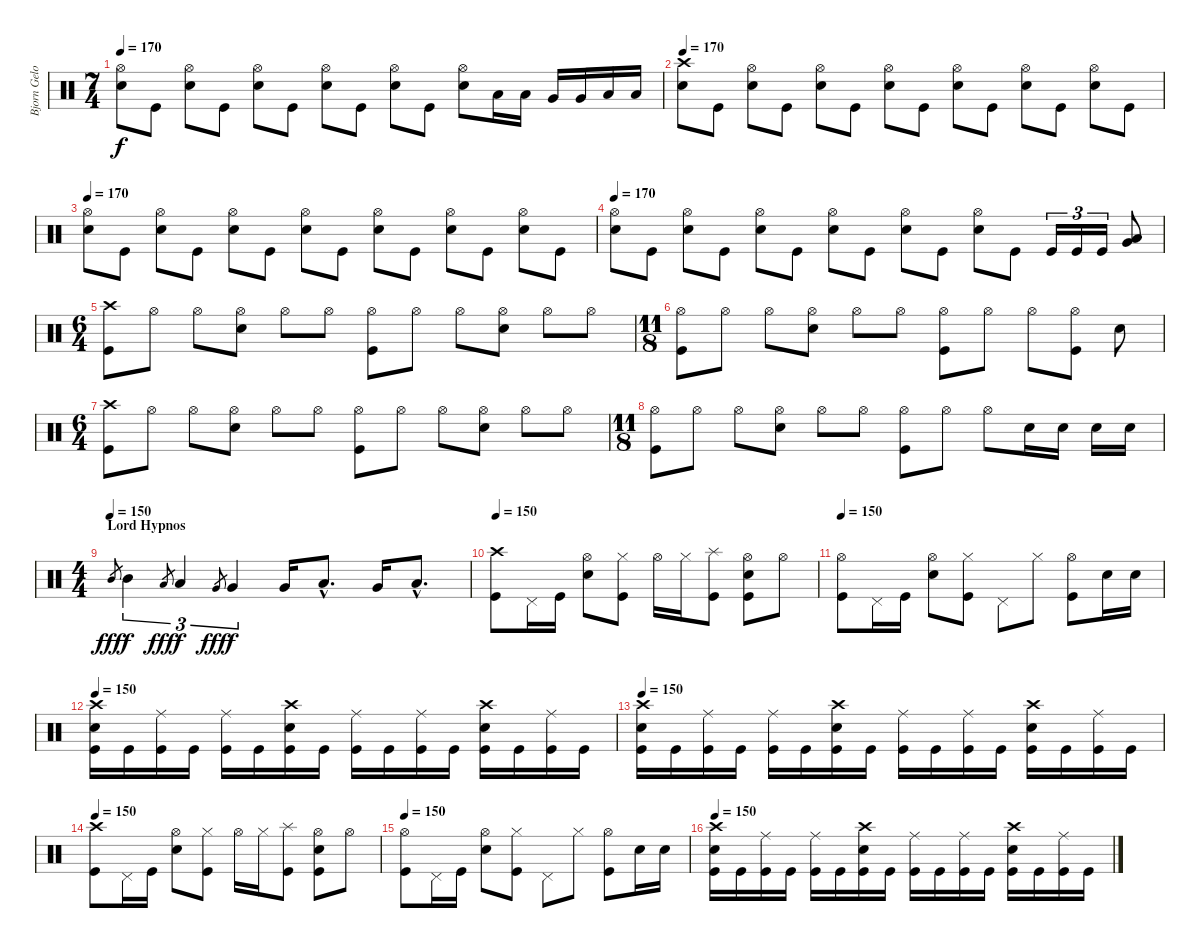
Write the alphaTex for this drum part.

\track ("Bjorn Gelotte-Drum" "Bjorn Gelo") {instrument percussion}
\staff {score}
\articulation defaults
\ts (7 4)
\tempo 170
\clef neutral
\ks c
("Hi-Hat (open)" "Electric Snare (hit)").8{dy f} "Kick (hit)".8 ("Hi-Hat (open)" "Electric Snare (hit)").8 "Kick (hit)".8 ("Hi-Hat (open)" "Electric Snare (hit)").8 "Kick (hit)".8 ("Hi-Hat (open)" "Electric Snare (hit)").8 "Kick (hit)".8 ("Hi-Hat (open)" "Electric Snare (hit)").8 "Kick (hit)".8 ("Hi-Hat (open)" "Electric Snare (hit)").8 "Low Tom (hit)".16 "Low Tom (hit)".16 "Very Low Tom (hit)".16 "Very Low Tom (hit)".16 "Low Floor Tom (hit)".16 "Low Floor Tom (hit)".16 |
\tempo 170
("Crash high (hit)" "Electric Snare (hit)").8 "Kick (hit)".8 ("Hi-Hat (open)" "Electric Snare (hit)").8 "Kick (hit)".8 ("Hi-Hat (open)" "Electric Snare (hit)").8 "Kick (hit)".8 ("Hi-Hat (open)" "Electric Snare (hit)").8 "Kick (hit)".8 ("Hi-Hat (open)" "Electric Snare (hit)").8 "Kick (hit)".8 ("Hi-Hat (open)" "Electric Snare (hit)").8 "Kick (hit)".8 ("Hi-Hat (open)" "Electric Snare (hit)").8 "Kick (hit)".8 |
\tempo 170
("Hi-Hat (open)" "Electric Snare (hit)").8 "Kick (hit)".8 ("Hi-Hat (open)" "Electric Snare (hit)").8 "Kick (hit)".8 ("Hi-Hat (open)" "Electric Snare (hit)").8 "Kick (hit)".8 ("Hi-Hat (open)" "Electric Snare (hit)").8 "Kick (hit)".8 ("Hi-Hat (open)" "Electric Snare (hit)").8 "Kick (hit)".8 ("Hi-Hat (open)" "Electric Snare (hit)").8 "Kick (hit)".8 ("Hi-Hat (open)" "Electric Snare (hit)").8 "Kick (hit)".8 |
\tempo 170
("Hi-Hat (open)" "Electric Snare (hit)").8 "Kick (hit)".8 ("Hi-Hat (open)" "Electric Snare (hit)").8 "Kick (hit)".8 ("Hi-Hat (open)" "Electric Snare (hit)").8 "Kick (hit)".8 ("Hi-Hat (open)" "Electric Snare (hit)").8 "Kick (hit)".8 ("Hi-Hat (open)" "Electric Snare (hit)").8 "Kick (hit)".8 ("Hi-Hat (open)" "Electric Snare (hit)").8 "Kick (hit)".8 "Kick (hit)".16{tu (3 2)} "Kick (hit)".16{tu (3 2)} "Kick (hit)".16{tu (3 2)} ("Very Low Tom (hit)" "Low Floor Tom (hit)").8 |
\ts (6 4)
("Crash high (hit)" "Kick (hit)").8 "Hi-Hat (open)".8 "Hi-Hat (open)".8 ("Hi-Hat (open)" "Electric Snare (hit)").8 "Hi-Hat (open)".8 "Hi-Hat (open)".8 ("Hi-Hat (open)" "Kick (hit)").8 "Hi-Hat (open)".8 "Hi-Hat (open)".8 ("Hi-Hat (open)" "Electric Snare (hit)").8 "Hi-Hat (open)".8 "Hi-Hat (open)".8 |
\ts (11 8)
("Hi-Hat (open)" "Kick (hit)").8 "Hi-Hat (open)".8 "Hi-Hat (open)".8 ("Hi-Hat (open)" "Electric Snare (hit)").8 "Hi-Hat (open)".8 "Hi-Hat (open)".8 ("Hi-Hat (open)" "Kick (hit)").8 "Hi-Hat (open)".8 "Hi-Hat (open)".8 ("Hi-Hat (open)" "Kick (hit)").8 "Electric Snare (hit)".8 |
\ts (6 4)
("Crash high (hit)" "Kick (hit)").8 "Hi-Hat (open)".8 "Hi-Hat (open)".8 ("Hi-Hat (open)" "Electric Snare (hit)").8 "Hi-Hat (open)".8 "Hi-Hat (open)".8 ("Hi-Hat (open)" "Kick (hit)").8 "Hi-Hat (open)".8 "Hi-Hat (open)".8 ("Hi-Hat (open)" "Electric Snare (hit)").8 "Hi-Hat (open)".8 "Hi-Hat (open)".8 |
\ts (11 8)
("Hi-Hat (open)" "Kick (hit)").8 "Hi-Hat (open)".8 "Hi-Hat (open)".8 ("Hi-Hat (open)" "Electric Snare (hit)").8 "Hi-Hat (open)".8 "Hi-Hat (open)".8 ("Hi-Hat (open)" "Kick (hit)").8 "Hi-Hat (open)".8 "Hi-Hat (open)".8 "Electric Snare (hit)".16 "Electric Snare (hit)".16 "Electric Snare (hit)".16 "Electric Snare (hit)".16 |
\ts (4 4)
\section ("" "Lord Hypnos")
\tempo (150)
"Mid Tom (hit)".8{gr dy fff} "Mid Tom (hit)".4{tu (3 2) dy f} "Low Tom (hit)".8{gr dy fff} "Low Tom (hit)".4{tu (3 2) dy f} "Very Low Tom (hit)".8{gr dy fff} "Very Low Tom (hit)".4{tu (3 2) dy f} "Very Low Tom (hit)".16 "Low Floor Tom (hit)"{hac}.8{d} "Very Low Tom (hit)".16 "Low Floor Tom (hit)"{hac}.8{d} |
\tempo 150
("Crash high (hit)" "Kick (hit)").8 "Pedal Hi-Hat (hit)".16 "Kick (hit)".16 ("Hi-Hat (open)" "Electric Snare (hit)").8 ("Hi-Hat (closed)" "Kick (hit)").8 "Hi-Hat (open)".16 "Hi-Hat (closed)".16 ("Splash (hit)" "Kick (hit)").8 ("Hi-Hat (open)" "Electric Snare (hit)" "Kick (hit)").8 "Hi-Hat (open)".8 |
\tempo 150
("Hi-Hat (open)" "Kick (hit)").8 "Pedal Hi-Hat (hit)".16 "Kick (hit)".16 ("Hi-Hat (open)" "Electric Snare (hit)").8 ("Hi-Hat (closed)" "Kick (hit)").8 "Pedal Hi-Hat (hit)".8 "Hi-Hat (closed)".8 ("Hi-Hat (open)" "Kick (hit)").8 "Electric Snare (hit)".16 "Electric Snare (hit)".16 |
\tempo 150
("Crash high (hit)" "Electric Snare (hit)" "Kick (hit)").16 "Kick (hit)".16 ("Ride (middle)" "Kick (hit)").16 "Kick (hit)".16 ("Ride (middle)" "Kick (hit)").16 "Kick (hit)".16 ("Crash high (hit)" "Electric Snare (hit)" "Kick (hit)").16 "Kick (hit)".16 ("Ride (middle)" "Kick (hit)").16 "Kick (hit)".16 ("Ride (middle)" "Kick (hit)").16 "Kick (hit)".16 ("Crash high (hit)" "Electric Snare (hit)" "Kick (hit)").16 "Kick (hit)".16 ("Ride (middle)" "Kick (hit)").16 "Kick (hit)".16 |
\tempo 150
("Crash high (hit)" "Electric Snare (hit)" "Kick (hit)").16 "Kick (hit)".16 ("Ride (middle)" "Kick (hit)").16 "Kick (hit)".16 ("Ride (middle)" "Kick (hit)").16 "Kick (hit)".16 ("Crash high (hit)" "Electric Snare (hit)" "Kick (hit)").16 "Kick (hit)".16 ("Ride (middle)" "Kick (hit)").16 "Kick (hit)".16 ("Ride (middle)" "Kick (hit)").16 "Kick (hit)".16 ("Crash high (hit)" "Electric Snare (hit)" "Kick (hit)").16 "Kick (hit)".16 ("Ride (middle)" "Kick (hit)").16 "Kick (hit)".16 |
\tempo 150
("Crash high (hit)" "Kick (hit)").8 "Pedal Hi-Hat (hit)".16 "Kick (hit)".16 ("Hi-Hat (open)" "Electric Snare (hit)").8 ("Hi-Hat (closed)" "Kick (hit)").8 "Hi-Hat (open)".16 "Hi-Hat (closed)".16 ("Splash (hit)" "Kick (hit)").8 ("Hi-Hat (open)" "Electric Snare (hit)" "Kick (hit)").8 "Hi-Hat (open)".8 |
\tempo 150
("Hi-Hat (open)" "Kick (hit)").8 "Pedal Hi-Hat (hit)".16 "Kick (hit)".16 ("Hi-Hat (open)" "Electric Snare (hit)").8 ("Hi-Hat (closed)" "Kick (hit)").8 "Pedal Hi-Hat (hit)".8 "Hi-Hat (closed)".8 ("Hi-Hat (open)" "Kick (hit)").8 "Electric Snare (hit)".16 "Electric Snare (hit)".16 |
\tempo 150
("Crash high (hit)" "Electric Snare (hit)" "Kick (hit)").16 "Kick (hit)".16 ("Ride (middle)" "Kick (hit)").16 "Kick (hit)".16 ("Ride (middle)" "Kick (hit)").16 "Kick (hit)".16 ("Crash high (hit)" "Electric Snare (hit)" "Kick (hit)").16 "Kick (hit)".16 ("Ride (middle)" "Kick (hit)").16 "Kick (hit)".16 ("Ride (middle)" "Kick (hit)").16 "Kick (hit)".16 ("Crash high (hit)" "Electric Snare (hit)" "Kick (hit)").16 "Kick (hit)".16 ("Ride (middle)" "Kick (hit)").16 "Kick (hit)".16
